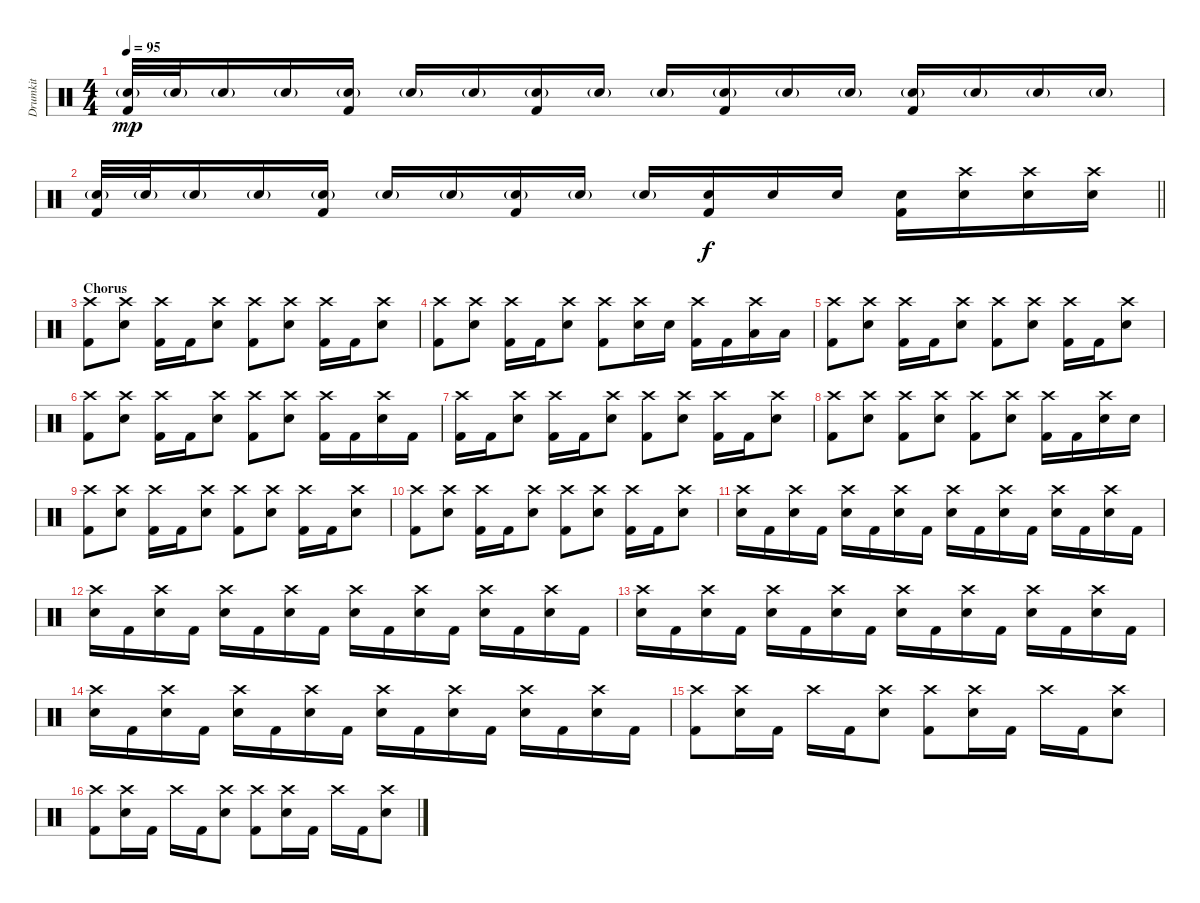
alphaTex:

\track ("Drumkit" "Drumkit") {instrument percussion}
\staff {score}
\articulation defaults
\ts (4 4)
\tempo 95
\clef neutral
\ks c
("Snare (hit) 2"{g} "Kick (hit) 2").32{dy mp} "Snare (hit) 2"{g}.32 "Snare (hit) 2"{g}.16 "Snare (hit) 2"{g}.16 ("Snare (hit) 2"{g} "Kick (hit) 2").16 "Snare (hit) 2"{g}.16 "Snare (hit) 2"{g}.16 ("Snare (hit) 2"{g} "Kick (hit) 2").16 "Snare (hit) 2"{g}.16 "Snare (hit) 2"{g}.16 ("Snare (hit) 2"{g} "Kick (hit) 2").16 "Snare (hit) 2"{g}.16 "Snare (hit) 2"{g}.16 ("Snare (hit) 2"{g} "Kick (hit) 2").16 "Snare (hit) 2"{g}.16 "Snare (hit) 2"{g}.16 "Snare (hit) 2"{g}.16 |
\barLineRight lightlight
("Snare (hit) 2"{g} "Kick (hit) 2").32 "Snare (hit) 2"{g}.32 "Snare (hit) 2"{g}.16 "Snare (hit) 2"{g}.16 ("Snare (hit) 2"{g} "Kick (hit) 2").16 "Snare (hit) 2"{g}.16 "Snare (hit) 2"{g}.16 ("Snare (hit) 2"{g} "Kick (hit) 2").16 "Snare (hit) 2"{g}.16 "Snare (hit) 2"{g}.16 ("Snare (hit) 2" "Kick (hit) 2").16{dy f} "Snare (hit) 2".16 "Snare (hit) 2".16 ("Snare (hit) 2" "Kick (hit) 2").16 ("Snare (hit) 2" "Crash high (hit)").16 ("Snare (hit) 2" "Crash high (hit)").16 ("Snare (hit) 2" "Crash high (hit)").16 |
\section ("" "Chorus")
("Crash high (hit)" "Kick (hit) 2").8 ("Crash high (hit)" "Snare (hit) 2").8 ("Crash high (hit)" "Kick (hit) 2").16 "Kick (hit) 2".16 ("Crash high (hit)" "Snare (hit) 2").8 ("Crash high (hit)" "Kick (hit) 2").8 ("Crash high (hit)" "Snare (hit) 2").8 ("Crash high (hit)" "Kick (hit) 2").16 "Kick (hit) 2".16 ("Crash high (hit)" "Snare (hit) 2").8 |
("Crash high (hit)" "Kick (hit) 2").8 ("Crash high (hit)" "Snare (hit) 2").8 ("Crash high (hit)" "Kick (hit) 2").16 "Kick (hit) 2".16 ("Crash high (hit)" "Snare (hit) 2").8 ("Crash high (hit)" "Kick (hit) 2").8 ("Crash high (hit)" "Snare (hit) 2").16 "Snare (hit) 2".16 ("Crash high (hit)" "Kick (hit) 2").16 "Kick (hit) 2".16 ("Crash high (hit)" "Low Tom (hit)").16 "Low Tom (hit)".16 |
("Crash high (hit)" "Kick (hit) 2").8 ("Crash high (hit)" "Snare (hit) 2").8 ("Crash high (hit)" "Kick (hit) 2").16 "Kick (hit) 2".16 ("Crash high (hit)" "Snare (hit) 2").8 ("Crash high (hit)" "Kick (hit) 2").8 ("Crash high (hit)" "Snare (hit) 2").8 ("Crash high (hit)" "Kick (hit) 2").16 "Kick (hit) 2".16 ("Crash high (hit)" "Snare (hit) 2").8 |
("Crash high (hit)" "Kick (hit) 2").8 ("Crash high (hit)" "Snare (hit) 2").8 ("Crash high (hit)" "Kick (hit) 2").16 "Kick (hit) 2".16 ("Crash high (hit)" "Snare (hit) 2").8 ("Crash high (hit)" "Kick (hit) 2").8 ("Crash high (hit)" "Snare (hit) 2").8 ("Crash high (hit)" "Kick (hit) 2").16 "Kick (hit) 2".16 ("Crash high (hit)" "Snare (hit) 2").16 "Kick (hit) 2".16 |
("Crash high (hit)" "Kick (hit) 2").16 "Kick (hit) 2".16 ("Crash high (hit)" "Snare (hit) 2").8 ("Crash high (hit)" "Kick (hit) 2").16 "Kick (hit) 2".16 ("Crash high (hit)" "Snare (hit) 2").8 ("Crash high (hit)" "Kick (hit) 2").8 ("Crash high (hit)" "Snare (hit) 2").8 ("Crash high (hit)" "Kick (hit) 2").16 "Kick (hit) 2".16 ("Crash high (hit)" "Snare (hit) 2").8 |
("Crash high (hit)" "Kick (hit) 2").8 ("Crash high (hit)" "Snare (hit) 2").8 ("Crash high (hit)" "Kick (hit) 2").8 ("Crash high (hit)" "Snare (hit) 2").8 ("Crash high (hit)" "Kick (hit) 2").8 ("Crash high (hit)" "Snare (hit) 2").8 ("Crash high (hit)" "Kick (hit) 2").16 "Kick (hit) 2".16 ("Crash high (hit)" "Snare (hit) 2").16 "Snare (hit) 2".16 |
("Crash high (hit)" "Kick (hit) 2").8 ("Crash high (hit)" "Snare (hit) 2").8 ("Crash high (hit)" "Kick (hit) 2").16 "Kick (hit) 2".16 ("Crash high (hit)" "Snare (hit) 2").8 ("Crash high (hit)" "Kick (hit) 2").8 ("Crash high (hit)" "Snare (hit) 2").8 ("Crash high (hit)" "Kick (hit) 2").16 "Kick (hit) 2".16 ("Crash high (hit)" "Snare (hit) 2").8 |
("Crash high (hit)" "Kick (hit) 2").8 ("Crash high (hit)" "Snare (hit) 2").8 ("Crash high (hit)" "Kick (hit) 2").16 "Kick (hit) 2".16 ("Crash high (hit)" "Snare (hit) 2").8 ("Crash high (hit)" "Kick (hit) 2").8 ("Crash high (hit)" "Snare (hit) 2").8 ("Crash high (hit)" "Kick (hit) 2").16 "Kick (hit) 2".16 ("Crash high (hit)" "Snare (hit) 2").8 |
("Crash high (hit)" "Snare (hit) 2").16 "Kick (hit) 2".16 ("Crash high (hit)" "Snare (hit) 2").16 "Kick (hit) 2".16 ("Crash high (hit)" "Snare (hit) 2").16 "Kick (hit) 2".16 ("Crash high (hit)" "Snare (hit) 2").16 "Kick (hit) 2".16 ("Crash high (hit)" "Snare (hit) 2").16 "Kick (hit) 2".16 ("Crash high (hit)" "Snare (hit) 2").16 "Kick (hit) 2".16 ("Crash high (hit)" "Snare (hit) 2").16 "Kick (hit) 2".16 ("Crash high (hit)" "Snare (hit) 2").16 "Kick (hit) 2".16 |
("Crash high (hit)" "Snare (hit) 2").16 "Kick (hit) 2".16 ("Crash high (hit)" "Snare (hit) 2").16 "Kick (hit) 2".16 ("Crash high (hit)" "Snare (hit) 2").16 "Kick (hit) 2".16 ("Crash high (hit)" "Snare (hit) 2").16 "Kick (hit) 2".16 ("Crash high (hit)" "Snare (hit) 2").16 "Kick (hit) 2".16 ("Crash high (hit)" "Snare (hit) 2").16 "Kick (hit) 2".16 ("Crash high (hit)" "Snare (hit) 2").16 "Kick (hit) 2".16 ("Crash high (hit)" "Snare (hit) 2").16 "Kick (hit) 2".16 |
("Crash high (hit)" "Snare (hit) 2").16 "Kick (hit) 2".16 ("Crash high (hit)" "Snare (hit) 2").16 "Kick (hit) 2".16 ("Crash high (hit)" "Snare (hit) 2").16 "Kick (hit) 2".16 ("Crash high (hit)" "Snare (hit) 2").16 "Kick (hit) 2".16 ("Crash high (hit)" "Snare (hit) 2").16 "Kick (hit) 2".16 ("Crash high (hit)" "Snare (hit) 2").16 "Kick (hit) 2".16 ("Crash high (hit)" "Snare (hit) 2").16 "Kick (hit) 2".16 ("Crash high (hit)" "Snare (hit) 2").16 "Kick (hit) 2".16 |
("Crash high (hit)" "Snare (hit) 2").16 "Kick (hit) 2".16 ("Crash high (hit)" "Snare (hit) 2").16 "Kick (hit) 2".16 ("Crash high (hit)" "Snare (hit) 2").16 "Kick (hit) 2".16 ("Crash high (hit)" "Snare (hit) 2").16 "Kick (hit) 2".16 ("Crash high (hit)" "Snare (hit) 2").16 "Kick (hit) 2".16 ("Crash high (hit)" "Snare (hit) 2").16 "Kick (hit) 2".16 ("Crash high (hit)" "Snare (hit) 2").16 "Kick (hit) 2".16 ("Crash high (hit)" "Snare (hit) 2").16 "Kick (hit) 2".16 |
("Crash high (hit)" "Kick (hit) 2").8 ("Crash high (hit)" "Snare (hit) 2").16 "Kick (hit) 2".16 "Crash high (hit)".16 "Kick (hit) 2".16 ("Crash high (hit)" "Snare (hit) 2").8 ("Crash high (hit)" "Kick (hit) 2").8 ("Crash high (hit)" "Snare (hit) 2").16 "Kick (hit) 2".16 "Crash high (hit)".16 "Kick (hit) 2".16 ("Crash high (hit)" "Snare (hit) 2").8 |
("Crash high (hit)" "Kick (hit) 2").8 ("Crash high (hit)" "Snare (hit) 2").16 "Kick (hit) 2".16 "Crash high (hit)".16 "Kick (hit) 2".16 ("Crash high (hit)" "Snare (hit) 2").8 ("Crash high (hit)" "Kick (hit) 2").8 ("Crash high (hit)" "Snare (hit) 2").16 "Kick (hit) 2".16 "Crash high (hit)".16 "Kick (hit) 2".16 ("Crash high (hit)" "Snare (hit) 2").8
